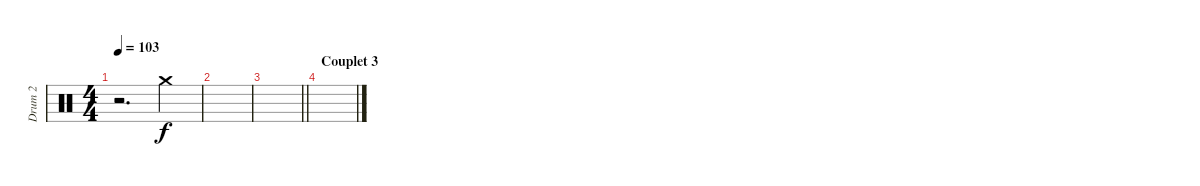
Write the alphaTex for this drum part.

\track ("Drum 2" "Drum 2") {instrument percussion}
\staff {score}
\articulation defaults
\ts (4 4)
\tempo 103
\clef neutral
\ks c
r.2{d dy f} "Crash medium (hit)".4 |
|
\barLineRight lightlight
|
\section ("" "Couplet 3")
